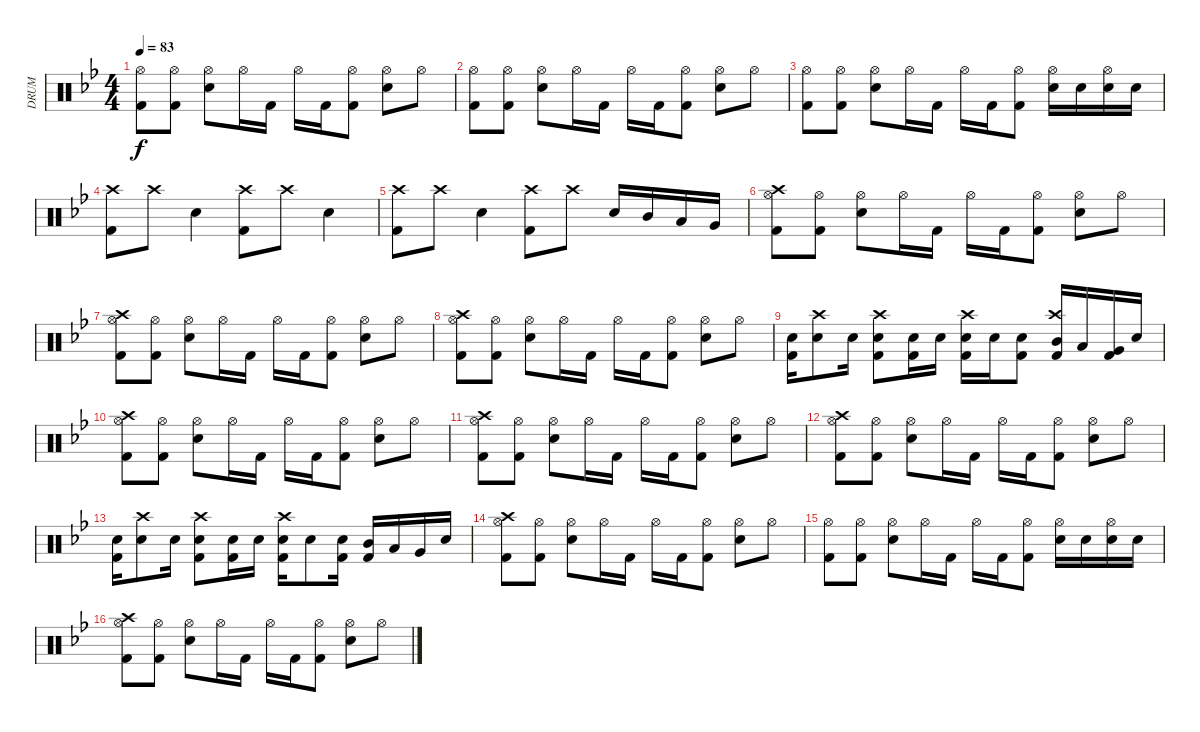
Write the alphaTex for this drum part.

\track ("DRUM" "DRUM") {instrument percussion}
\staff {score}
\articulation defaults
\ts (4 4)
\tempo 83
\clef neutral
\ks gminor
("Hi-Hat (open)" "Kick (hit) 2").8{dy f} ("Hi-Hat (open)" "Kick (hit) 2").8 ("Hi-Hat (open)" "Electric Snare (hit)").8 "Hi-Hat (open)".16 "Kick (hit) 2".16 "Hi-Hat (open)".16 "Kick (hit) 2".16 ("Hi-Hat (open)" "Kick (hit) 2").8 ("Hi-Hat (open)" "Electric Snare (hit)").8 "Hi-Hat (open)".8 |
("Hi-Hat (open)" "Kick (hit) 2").8 ("Hi-Hat (open)" "Kick (hit) 2").8 ("Hi-Hat (open)" "Electric Snare (hit)").8 "Hi-Hat (open)".16 "Kick (hit) 2".16 "Hi-Hat (open)".16 "Kick (hit) 2".16 ("Hi-Hat (open)" "Kick (hit) 2").8 ("Hi-Hat (open)" "Electric Snare (hit)").8 "Hi-Hat (open)".8 |
("Hi-Hat (open)" "Kick (hit) 2").8 ("Hi-Hat (open)" "Kick (hit) 2").8 ("Hi-Hat (open)" "Electric Snare (hit)").8 "Hi-Hat (open)".16 "Kick (hit) 2".16 "Hi-Hat (open)".16 "Kick (hit) 2".16 ("Hi-Hat (open)" "Kick (hit) 2").8 ("Hi-Hat (open)" "Electric Snare (hit)").16 "Electric Snare (hit)".16 ("Hi-Hat (open)" "Electric Snare (hit)").16 "Electric Snare (hit)".16 |
("Crash high (hit)" "Kick (hit) 2").8 "Crash high (hit)".8 "Electric Snare (hit)".4 ("Crash high (hit)" "Kick (hit) 2").8 "Crash high (hit)".8 "Electric Snare (hit)".4 |
("Crash high (hit)" "Kick (hit) 2").8 "Crash high (hit)".8 "Electric Snare (hit)".4 ("Crash high (hit)" "Kick (hit) 2").8 "Crash high (hit)".8 "Electric Snare (hit)".16 "Mid Tom (hit)".16 "Low Tom (hit)".16 "Very Low Tom (hit)".16 |
("Hi-Hat (open)" "Crash high (hit)" "Kick (hit) 2").8 ("Hi-Hat (open)" "Kick (hit) 2").8 ("Hi-Hat (open)" "Electric Snare (hit)").8 "Hi-Hat (open)".16 "Kick (hit) 2".16 "Hi-Hat (open)".16 "Kick (hit) 2".16 ("Hi-Hat (open)" "Kick (hit) 2").8 ("Hi-Hat (open)" "Electric Snare (hit)").8 "Hi-Hat (open)".8 |
("Hi-Hat (open)" "Crash high (hit)" "Kick (hit) 2").8 ("Hi-Hat (open)" "Kick (hit) 2").8 ("Hi-Hat (open)" "Electric Snare (hit)").8 "Hi-Hat (open)".16 "Kick (hit) 2".16 "Hi-Hat (open)".16 "Kick (hit) 2".16 ("Hi-Hat (open)" "Kick (hit) 2").8 ("Hi-Hat (open)" "Electric Snare (hit)").8 "Hi-Hat (open)".8 |
("Hi-Hat (open)" "Crash high (hit)" "Kick (hit) 2").8 ("Hi-Hat (open)" "Kick (hit) 2").8 ("Hi-Hat (open)" "Electric Snare (hit)").8 "Hi-Hat (open)".16 "Kick (hit) 2".16 "Hi-Hat (open)".16 "Kick (hit) 2".16 ("Hi-Hat (open)" "Kick (hit) 2").8 ("Hi-Hat (open)" "Electric Snare (hit)").8 "Hi-Hat (open)".8 |
("Electric Snare (hit)" "Kick (hit) 2").16 ("Crash high (hit)" "Electric Snare (hit)").8 "Electric Snare (hit)".16 ("Crash high (hit)" "Electric Snare (hit)" "Kick (hit) 2").8 ("Electric Snare (hit)" "Kick (hit) 2").16 "Electric Snare (hit)".16 ("Crash high (hit)" "Electric Snare (hit)" "Kick (hit) 2").16 "Electric Snare (hit)".16 ("Electric Snare (hit)" "Kick (hit) 2").8 ("Crash high (hit)" "Mid Tom (hit)" "Kick (hit) 2").16 "Low Tom (hit)".16 ("Very Low Tom (hit)" "Kick (hit) 2").16 "Electric Snare (hit)".16 |
("Hi-Hat (open)" "Crash high (hit)" "Kick (hit) 2").8 ("Hi-Hat (open)" "Kick (hit) 2").8 ("Hi-Hat (open)" "Electric Snare (hit)").8 "Hi-Hat (open)".16 "Kick (hit) 2".16 "Hi-Hat (open)".16 "Kick (hit) 2".16 ("Hi-Hat (open)" "Kick (hit) 2").8 ("Hi-Hat (open)" "Electric Snare (hit)").8 "Hi-Hat (open)".8 |
("Hi-Hat (open)" "Crash high (hit)" "Kick (hit) 2").8 ("Hi-Hat (open)" "Kick (hit) 2").8 ("Hi-Hat (open)" "Electric Snare (hit)").8 "Hi-Hat (open)".16 "Kick (hit) 2".16 "Hi-Hat (open)".16 "Kick (hit) 2".16 ("Hi-Hat (open)" "Kick (hit) 2").8 ("Hi-Hat (open)" "Electric Snare (hit)").8 "Hi-Hat (open)".8 |
("Hi-Hat (open)" "Crash high (hit)" "Kick (hit) 2").8 ("Hi-Hat (open)" "Kick (hit) 2").8 ("Hi-Hat (open)" "Electric Snare (hit)").8 "Hi-Hat (open)".16 "Kick (hit) 2".16 "Hi-Hat (open)".16 "Kick (hit) 2".16 ("Hi-Hat (open)" "Kick (hit) 2").8 ("Hi-Hat (open)" "Electric Snare (hit)").8 "Hi-Hat (open)".8 |
("Electric Snare (hit)" "Kick (hit) 2").16 ("Crash high (hit)" "Electric Snare (hit)").8 "Electric Snare (hit)".16 ("Crash high (hit)" "Electric Snare (hit)" "Kick (hit) 2").8 ("Electric Snare (hit)" "Kick (hit) 2").16 "Electric Snare (hit)".16 ("Crash high (hit)" "Electric Snare (hit)" "Kick (hit) 2").16 "Electric Snare (hit)".8 ("Electric Snare (hit)" "Kick (hit) 2").16 ("Mid Tom (hit)" "Kick (hit) 2").16 "Low Tom (hit)".16 "Very Low Tom (hit)".16 "Electric Snare (hit)".16 |
("Hi-Hat (open)" "Crash high (hit)" "Kick (hit) 2").8 ("Hi-Hat (open)" "Kick (hit) 2").8 ("Hi-Hat (open)" "Electric Snare (hit)").8 "Hi-Hat (open)".16 "Kick (hit) 2".16 "Hi-Hat (open)".16 "Kick (hit) 2".16 ("Hi-Hat (open)" "Kick (hit) 2").8 ("Hi-Hat (open)" "Electric Snare (hit)").8 "Hi-Hat (open)".8 |
("Hi-Hat (open)" "Kick (hit) 2").8 ("Hi-Hat (open)" "Kick (hit) 2").8 ("Hi-Hat (open)" "Electric Snare (hit)").8 "Hi-Hat (open)".16 "Kick (hit) 2".16 "Hi-Hat (open)".16 "Kick (hit) 2".16 ("Hi-Hat (open)" "Kick (hit) 2").8 ("Hi-Hat (open)" "Electric Snare (hit)").16 "Electric Snare (hit)".16 ("Hi-Hat (open)" "Electric Snare (hit)").16 "Electric Snare (hit)".16 |
("Hi-Hat (open)" "Crash high (hit)" "Kick (hit) 2").8 ("Hi-Hat (open)" "Kick (hit) 2").8 ("Hi-Hat (open)" "Electric Snare (hit)").8 "Hi-Hat (open)".16 "Kick (hit) 2".16 "Hi-Hat (open)".16 "Kick (hit) 2".16 ("Hi-Hat (open)" "Kick (hit) 2").8 ("Hi-Hat (open)" "Electric Snare (hit)").8 "Hi-Hat (open)".8
